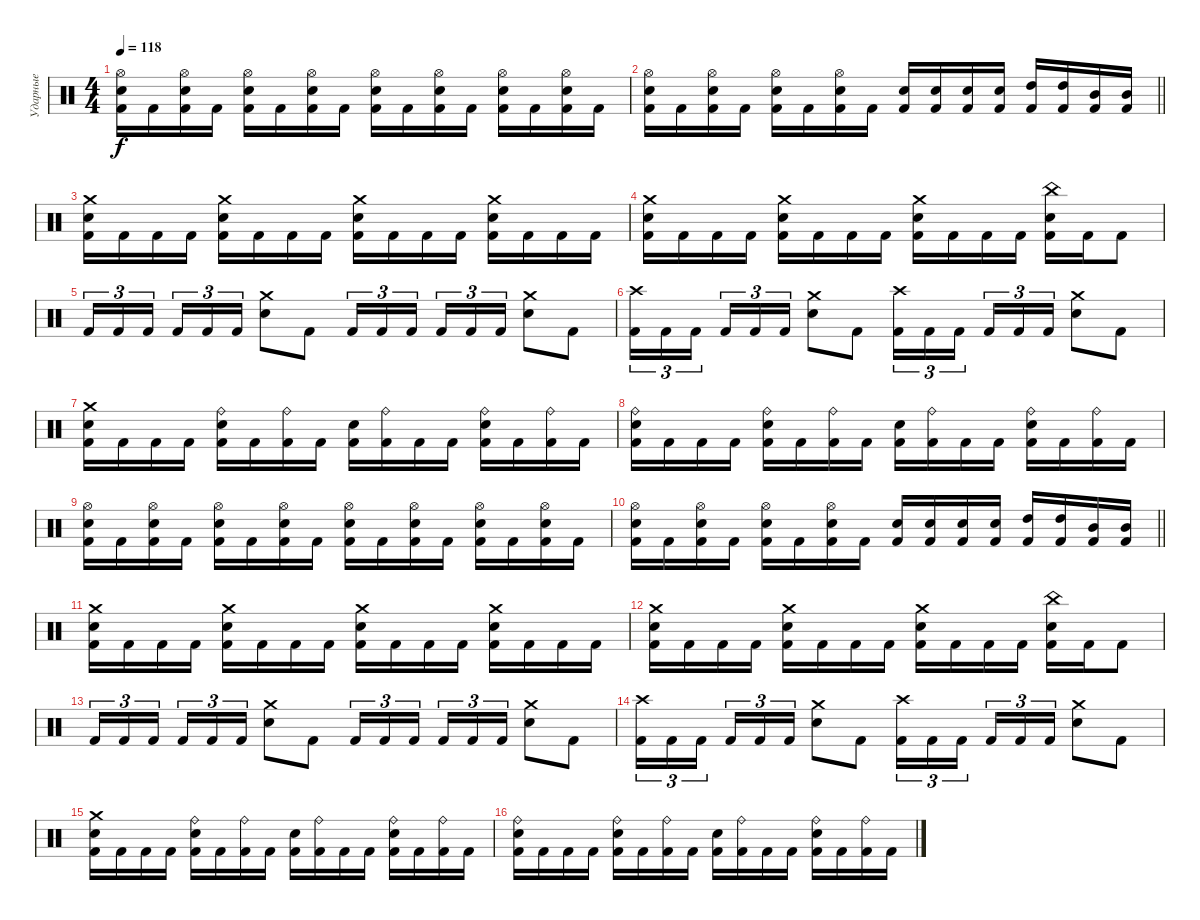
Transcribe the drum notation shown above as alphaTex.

\track ("Ударные" "Ударные") {instrument percussion}
\staff {score}
\articulation defaults
\ts (4 4)
\tempo 118
\clef neutral
\ks c
("Hi-Hat (open)" "Electric Snare (hit)" "Kick (hit) 2").16{dy f} "Kick (hit) 2".16 ("Hi-Hat (open)" "Electric Snare (hit)" "Kick (hit) 2").16 "Kick (hit) 2".16 ("Hi-Hat (open)" "Electric Snare (hit)" "Kick (hit) 2").16 "Kick (hit) 2".16 ("Hi-Hat (open)" "Electric Snare (hit)" "Kick (hit) 2").16 "Kick (hit) 2".16 ("Hi-Hat (open)" "Electric Snare (hit)" "Kick (hit) 2").16 "Kick (hit) 2".16 ("Hi-Hat (open)" "Electric Snare (hit)" "Kick (hit) 2").16 "Kick (hit) 2".16 ("Hi-Hat (open)" "Electric Snare (hit)" "Kick (hit) 2").16 "Kick (hit) 2".16 ("Hi-Hat (open)" "Electric Snare (hit)" "Kick (hit) 2").16 "Kick (hit) 2".16 |
\barLineRight lightlight
("Hi-Hat (open)" "Electric Snare (hit)" "Kick (hit) 2").16 "Kick (hit) 2".16 ("Hi-Hat (open)" "Electric Snare (hit)" "Kick (hit) 2").16 "Kick (hit) 2".16 ("Hi-Hat (open)" "Electric Snare (hit)" "Kick (hit) 2").16 "Kick (hit) 2".16 ("Hi-Hat (open)" "Electric Snare (hit)" "Kick (hit) 2").16 "Kick (hit) 2".16 ("Electric Snare (hit)" "Kick (hit) 2").16 ("Electric Snare (hit)" "Kick (hit) 2").16 ("Electric Snare (hit)" "Kick (hit) 2").16 ("Electric Snare (hit)" "Kick (hit) 2").16 ("High Tom (hit)" "Kick (hit) 2").16 ("High Tom (hit)" "Kick (hit) 2").16 ("Mid Tom (hit)" "Kick (hit) 2").16 ("Mid Tom (hit)" "Kick (hit) 2").16 |
("Crash medium (hit)" "Electric Snare (hit)" "Kick (hit) 2").16 "Kick (hit) 2".16 "Kick (hit) 2".16 "Kick (hit) 2".16 ("Crash medium (hit)" "Electric Snare (hit)" "Kick (hit) 2").16 "Kick (hit) 2".16 "Kick (hit) 2".16 "Kick (hit) 2".16 ("Crash medium (hit)" "Electric Snare (hit)" "Kick (hit) 2").16 "Kick (hit) 2".16 "Kick (hit) 2".16 "Kick (hit) 2".16 ("Crash medium (hit)" "Electric Snare (hit)" "Kick (hit) 2").16 "Kick (hit) 2".16 "Kick (hit) 2".16 "Kick (hit) 2".16 |
("Crash medium (hit)" "Electric Snare (hit)" "Kick (hit) 2").16 "Kick (hit) 2".16 "Kick (hit) 2".16 "Kick (hit) 2".16 ("Crash medium (hit)" "Electric Snare (hit)" "Kick (hit) 2").16 "Kick (hit) 2".16 "Kick (hit) 2".16 "Kick (hit) 2".16 ("Crash medium (hit)" "Electric Snare (hit)" "Kick (hit) 2").16 "Kick (hit) 2".16 "Kick (hit) 2".16 "Kick (hit) 2".16 ("China (hit)" "Electric Snare (hit)" "Kick (hit) 2").16 "Kick (hit) 2".16 "Kick (hit) 2".8 |
"Kick (hit) 2".16{tu (3 2)} "Kick (hit) 2".16{tu (3 2)} "Kick (hit) 2".16{tu (3 2)} "Kick (hit) 2".16{tu (3 2)} "Kick (hit) 2".16{tu (3 2)} "Kick (hit) 2".16{tu (3 2)} ("Crash medium (hit)" "Electric Snare (hit)").8 "Kick (hit) 2".8 "Kick (hit) 2".16{tu (3 2)} "Kick (hit) 2".16{tu (3 2)} "Kick (hit) 2".16{tu (3 2)} "Kick (hit) 2".16{tu (3 2)} "Kick (hit) 2".16{tu (3 2)} "Kick (hit) 2".16{tu (3 2)} ("Crash medium (hit)" "Electric Snare (hit)").8 "Kick (hit) 2".8 |
("Crash high (hit)" "Kick (hit) 2").16{tu (3 2)} "Kick (hit) 2".16{tu (3 2)} "Kick (hit) 2".16{tu (3 2)} "Kick (hit) 2".16{tu (3 2)} "Kick (hit) 2".16{tu (3 2)} "Kick (hit) 2".16{tu (3 2)} ("Crash medium (hit)" "Electric Snare (hit)").8 "Kick (hit) 2".8 ("Crash high (hit)" "Kick (hit) 2").16{tu (3 2)} "Kick (hit) 2".16{tu (3 2)} "Kick (hit) 2".16{tu (3 2)} "Kick (hit) 2".16{tu (3 2)} "Kick (hit) 2".16{tu (3 2)} "Kick (hit) 2".16{tu (3 2)} ("Crash medium (hit)" "Electric Snare (hit)").8 "Kick (hit) 2".8 |
("Crash medium (hit)" "Electric Snare (hit)" "Kick (hit) 2").16 "Kick (hit) 2".16 "Kick (hit) 2".16 "Kick (hit) 2".16 ("Ride (bell)" "Electric Snare (hit)" "Kick (hit) 2").16 "Kick (hit) 2".16 ("Ride (bell)" "Kick (hit) 2").16 "Kick (hit) 2".16 ("Electric Snare (hit)" "Kick (hit) 2").16 ("Ride (bell)" "Kick (hit) 2").16 "Kick (hit) 2".16 "Kick (hit) 2".16 ("Ride (bell)" "Electric Snare (hit)" "Kick (hit) 2").16 "Kick (hit) 2".16 ("Ride (bell)" "Kick (hit) 2").16 "Kick (hit) 2".16 |
("Ride (bell)" "Electric Snare (hit)" "Kick (hit) 2").16 "Kick (hit) 2".16 "Kick (hit) 2".16 "Kick (hit) 2".16 ("Ride (bell)" "Electric Snare (hit)" "Kick (hit) 2").16 "Kick (hit) 2".16 ("Ride (bell)" "Kick (hit) 2").16 "Kick (hit) 2".16 ("Electric Snare (hit)" "Kick (hit) 2").16 ("Ride (bell)" "Kick (hit) 2").16 "Kick (hit) 2".16 "Kick (hit) 2".16 ("Ride (bell)" "Electric Snare (hit)" "Kick (hit) 2").16 "Kick (hit) 2".16 ("Ride (bell)" "Kick (hit) 2").16 "Kick (hit) 2".16 |
("Hi-Hat (open)" "Electric Snare (hit)" "Kick (hit) 2").16 "Kick (hit) 2".16 ("Hi-Hat (open)" "Electric Snare (hit)" "Kick (hit) 2").16 "Kick (hit) 2".16 ("Hi-Hat (open)" "Electric Snare (hit)" "Kick (hit) 2").16 "Kick (hit) 2".16 ("Hi-Hat (open)" "Electric Snare (hit)" "Kick (hit) 2").16 "Kick (hit) 2".16 ("Hi-Hat (open)" "Electric Snare (hit)" "Kick (hit) 2").16 "Kick (hit) 2".16 ("Hi-Hat (open)" "Electric Snare (hit)" "Kick (hit) 2").16 "Kick (hit) 2".16 ("Hi-Hat (open)" "Electric Snare (hit)" "Kick (hit) 2").16 "Kick (hit) 2".16 ("Hi-Hat (open)" "Electric Snare (hit)" "Kick (hit) 2").16 "Kick (hit) 2".16 |
\barLineRight lightlight
("Hi-Hat (open)" "Electric Snare (hit)" "Kick (hit) 2").16 "Kick (hit) 2".16 ("Hi-Hat (open)" "Electric Snare (hit)" "Kick (hit) 2").16 "Kick (hit) 2".16 ("Hi-Hat (open)" "Electric Snare (hit)" "Kick (hit) 2").16 "Kick (hit) 2".16 ("Hi-Hat (open)" "Electric Snare (hit)" "Kick (hit) 2").16 "Kick (hit) 2".16 ("Electric Snare (hit)" "Kick (hit) 2").16 ("Electric Snare (hit)" "Kick (hit) 2").16 ("Electric Snare (hit)" "Kick (hit) 2").16 ("Electric Snare (hit)" "Kick (hit) 2").16 ("High Tom (hit)" "Kick (hit) 2").16 ("High Tom (hit)" "Kick (hit) 2").16 ("Mid Tom (hit)" "Kick (hit) 2").16 ("Mid Tom (hit)" "Kick (hit) 2").16 |
("Crash medium (hit)" "Electric Snare (hit)" "Kick (hit) 2").16 "Kick (hit) 2".16 "Kick (hit) 2".16 "Kick (hit) 2".16 ("Crash medium (hit)" "Electric Snare (hit)" "Kick (hit) 2").16 "Kick (hit) 2".16 "Kick (hit) 2".16 "Kick (hit) 2".16 ("Crash medium (hit)" "Electric Snare (hit)" "Kick (hit) 2").16 "Kick (hit) 2".16 "Kick (hit) 2".16 "Kick (hit) 2".16 ("Crash medium (hit)" "Electric Snare (hit)" "Kick (hit) 2").16 "Kick (hit) 2".16 "Kick (hit) 2".16 "Kick (hit) 2".16 |
("Crash medium (hit)" "Electric Snare (hit)" "Kick (hit) 2").16 "Kick (hit) 2".16 "Kick (hit) 2".16 "Kick (hit) 2".16 ("Crash medium (hit)" "Electric Snare (hit)" "Kick (hit) 2").16 "Kick (hit) 2".16 "Kick (hit) 2".16 "Kick (hit) 2".16 ("Crash medium (hit)" "Electric Snare (hit)" "Kick (hit) 2").16 "Kick (hit) 2".16 "Kick (hit) 2".16 "Kick (hit) 2".16 ("China (hit)" "Electric Snare (hit)" "Kick (hit) 2").16 "Kick (hit) 2".16 "Kick (hit) 2".8 |
"Kick (hit) 2".16{tu (3 2)} "Kick (hit) 2".16{tu (3 2)} "Kick (hit) 2".16{tu (3 2)} "Kick (hit) 2".16{tu (3 2)} "Kick (hit) 2".16{tu (3 2)} "Kick (hit) 2".16{tu (3 2)} ("Crash medium (hit)" "Electric Snare (hit)").8 "Kick (hit) 2".8 "Kick (hit) 2".16{tu (3 2)} "Kick (hit) 2".16{tu (3 2)} "Kick (hit) 2".16{tu (3 2)} "Kick (hit) 2".16{tu (3 2)} "Kick (hit) 2".16{tu (3 2)} "Kick (hit) 2".16{tu (3 2)} ("Crash medium (hit)" "Electric Snare (hit)").8 "Kick (hit) 2".8 |
("Crash high (hit)" "Kick (hit) 2").16{tu (3 2)} "Kick (hit) 2".16{tu (3 2)} "Kick (hit) 2".16{tu (3 2)} "Kick (hit) 2".16{tu (3 2)} "Kick (hit) 2".16{tu (3 2)} "Kick (hit) 2".16{tu (3 2)} ("Crash medium (hit)" "Electric Snare (hit)").8 "Kick (hit) 2".8 ("Crash high (hit)" "Kick (hit) 2").16{tu (3 2)} "Kick (hit) 2".16{tu (3 2)} "Kick (hit) 2".16{tu (3 2)} "Kick (hit) 2".16{tu (3 2)} "Kick (hit) 2".16{tu (3 2)} "Kick (hit) 2".16{tu (3 2)} ("Crash medium (hit)" "Electric Snare (hit)").8 "Kick (hit) 2".8 |
("Crash medium (hit)" "Electric Snare (hit)" "Kick (hit) 2").16 "Kick (hit) 2".16 "Kick (hit) 2".16 "Kick (hit) 2".16 ("Ride (bell)" "Electric Snare (hit)" "Kick (hit) 2").16 "Kick (hit) 2".16 ("Ride (bell)" "Kick (hit) 2").16 "Kick (hit) 2".16 ("Electric Snare (hit)" "Kick (hit) 2").16 ("Ride (bell)" "Kick (hit) 2").16 "Kick (hit) 2".16 "Kick (hit) 2".16 ("Ride (bell)" "Electric Snare (hit)" "Kick (hit) 2").16 "Kick (hit) 2".16 ("Ride (bell)" "Kick (hit) 2").16 "Kick (hit) 2".16 |
("Ride (bell)" "Electric Snare (hit)" "Kick (hit) 2").16 "Kick (hit) 2".16 "Kick (hit) 2".16 "Kick (hit) 2".16 ("Ride (bell)" "Electric Snare (hit)" "Kick (hit) 2").16 "Kick (hit) 2".16 ("Ride (bell)" "Kick (hit) 2").16 "Kick (hit) 2".16 ("Electric Snare (hit)" "Kick (hit) 2").16 ("Ride (bell)" "Kick (hit) 2").16 "Kick (hit) 2".16 "Kick (hit) 2".16 ("Ride (bell)" "Electric Snare (hit)" "Kick (hit) 2").16 "Kick (hit) 2".16 ("Ride (bell)" "Kick (hit) 2").16 "Kick (hit) 2".16
